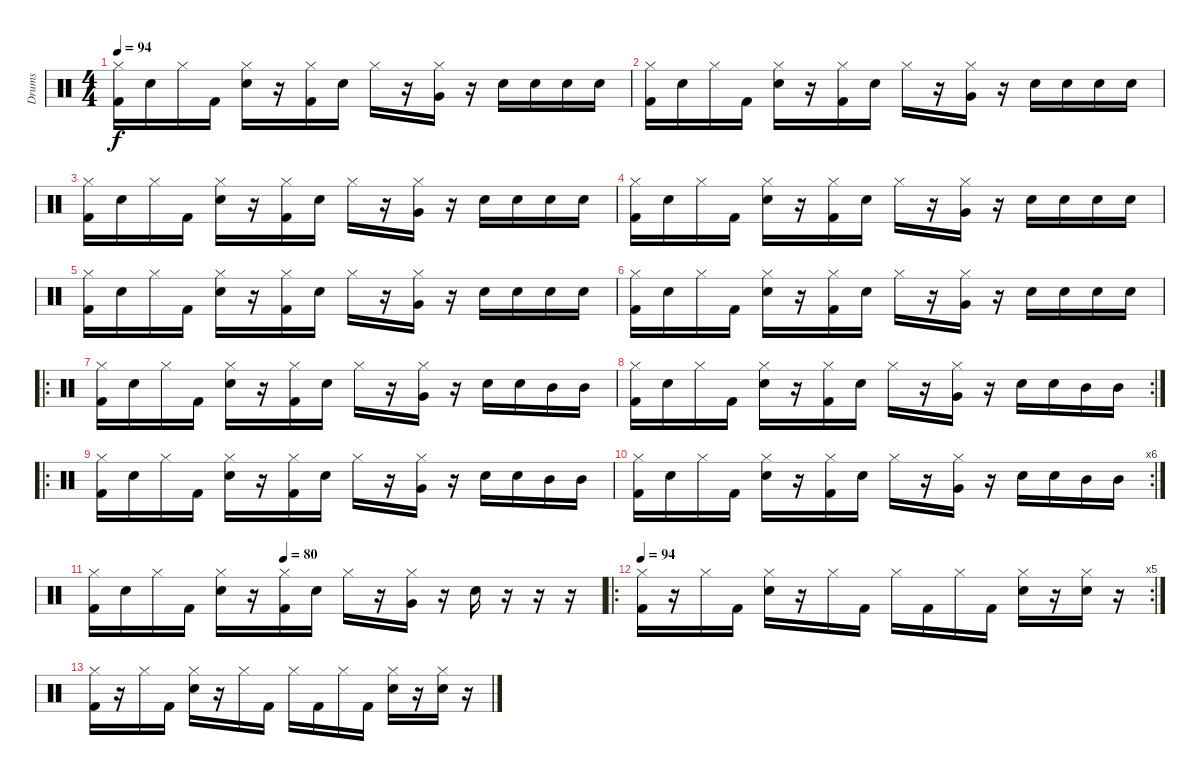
\track ("Drums" "Drums") {instrument percussion}
\staff {score}
\articulation defaults
\ts (4 4)
\tempo 94
\clef neutral
\ks c
("Hi-Hat (closed)" "Kick (hit) 2").16{dy f} "Snare (hit) 2".16 "Hi-Hat (closed)".16 "Kick (hit) 2".16 ("Hi-Hat (closed)" "Snare (hit) 2").16 r.16 ("Hi-Hat (closed)" "Kick (hit) 2").16 "Snare (hit) 2".16 "Hi-Hat (closed)".16 r.16 ("Hi-Hat (closed)" "Very Low Tom (hit)").16 r.16 "Snare (hit) 2".16 "Snare (hit) 2".16 "Snare (hit) 2".16 "Snare (hit) 2".16 |
("Hi-Hat (closed)" "Kick (hit) 2").16 "Snare (hit) 2".16 "Hi-Hat (closed)".16 "Kick (hit) 2".16 ("Hi-Hat (closed)" "Snare (hit) 2").16 r.16 ("Hi-Hat (closed)" "Kick (hit) 2").16 "Snare (hit) 2".16 "Hi-Hat (closed)".16 r.16 ("Hi-Hat (closed)" "Very Low Tom (hit)").16 r.16 "Snare (hit) 2".16 "Snare (hit) 2".16 "Snare (hit) 2".16 "Snare (hit) 2".16 |
("Hi-Hat (closed)" "Kick (hit) 2").16 "Snare (hit) 2".16 "Hi-Hat (closed)".16 "Kick (hit) 2".16 ("Hi-Hat (closed)" "Snare (hit) 2").16 r.16 ("Hi-Hat (closed)" "Kick (hit) 2").16 "Snare (hit) 2".16 "Hi-Hat (closed)".16 r.16 ("Hi-Hat (closed)" "Very Low Tom (hit)").16 r.16 "Snare (hit) 2".16 "Snare (hit) 2".16 "Snare (hit) 2".16 "Snare (hit) 2".16 |
("Hi-Hat (closed)" "Kick (hit) 2").16 "Snare (hit) 2".16 "Hi-Hat (closed)".16 "Kick (hit) 2".16 ("Hi-Hat (closed)" "Snare (hit) 2").16 r.16 ("Hi-Hat (closed)" "Kick (hit) 2").16 "Snare (hit) 2".16 "Hi-Hat (closed)".16 r.16 ("Hi-Hat (closed)" "Very Low Tom (hit)").16 r.16 "Snare (hit) 2".16 "Snare (hit) 2".16 "Snare (hit) 2".16 "Snare (hit) 2".16 |
("Hi-Hat (closed)" "Kick (hit) 2").16 "Snare (hit) 2".16 "Hi-Hat (closed)".16 "Kick (hit) 2".16 ("Hi-Hat (closed)" "Snare (hit) 2").16 r.16 ("Hi-Hat (closed)" "Kick (hit) 2").16 "Snare (hit) 2".16 "Hi-Hat (closed)".16 r.16 ("Hi-Hat (closed)" "Very Low Tom (hit)").16 r.16 "Snare (hit) 2".16 "Snare (hit) 2".16 "Snare (hit) 2".16 "Snare (hit) 2".16 |
("Hi-Hat (closed)" "Kick (hit) 2").16 "Snare (hit) 2".16 "Hi-Hat (closed)".16 "Kick (hit) 2".16 ("Hi-Hat (closed)" "Snare (hit) 2").16 r.16 ("Hi-Hat (closed)" "Kick (hit) 2").16 "Snare (hit) 2".16 "Hi-Hat (closed)".16 r.16 ("Hi-Hat (closed)" "Very Low Tom (hit)").16 r.16 "Snare (hit) 2".16 "Snare (hit) 2".16 "Snare (hit) 2".16 "Snare (hit) 2".16 |
\ro
("Hi-Hat (closed)" "Kick (hit) 2").16 "Snare (hit) 2".16 "Hi-Hat (closed)".16 "Kick (hit) 2".16 ("Hi-Hat (closed)" "Snare (hit) 2").16 r.16 ("Hi-Hat (closed)" "Kick (hit) 2").16 "Snare (hit) 2".16 "Hi-Hat (closed)".16 r.16 ("Hi-Hat (closed)" "Very Low Tom (hit)").16 r.16 "Snare (hit) 2".16 "Snare (hit) 2".16 "Mid Tom (hit)".16 "Mid Tom (hit)".16 |
\rc 2
("Hi-Hat (closed)" "Kick (hit) 2").16 "Snare (hit) 2".16 "Hi-Hat (closed)".16 "Kick (hit) 2".16 ("Hi-Hat (closed)" "Snare (hit) 2").16 r.16 ("Hi-Hat (closed)" "Kick (hit) 2").16 "Snare (hit) 2".16 "Hi-Hat (closed)".16 r.16 ("Hi-Hat (closed)" "Very Low Tom (hit)").16 r.16 "Snare (hit) 2".16 "Snare (hit) 2".16 "Mid Tom (hit)".16 "Mid Tom (hit)".16 |
\ro
("Hi-Hat (closed)" "Kick (hit) 2").16 "Snare (hit) 2".16 "Hi-Hat (closed)".16 "Kick (hit) 2".16 ("Hi-Hat (closed)" "Snare (hit) 2").16 r.16 ("Hi-Hat (closed)" "Kick (hit) 2").16 "Snare (hit) 2".16 "Hi-Hat (closed)".16 r.16 ("Hi-Hat (closed)" "Very Low Tom (hit)").16 r.16 "Snare (hit) 2".16 "Snare (hit) 2".16 "Mid Tom (hit)".16 "Mid Tom (hit)".16 |
\rc 6
("Hi-Hat (closed)" "Kick (hit) 2").16 "Snare (hit) 2".16 "Hi-Hat (closed)".16 "Kick (hit) 2".16 ("Hi-Hat (closed)" "Snare (hit) 2").16 r.16 ("Hi-Hat (closed)" "Kick (hit) 2").16 "Snare (hit) 2".16 "Hi-Hat (closed)".16 r.16 ("Hi-Hat (closed)" "Very Low Tom (hit)").16 r.16 "Snare (hit) 2".16 "Snare (hit) 2".16 "Mid Tom (hit)".16 "Mid Tom (hit)".16 |
\tempo (80 0.375)
("Hi-Hat (closed)" "Kick (hit) 2").16 "Snare (hit) 2".16 "Hi-Hat (closed)".16 "Kick (hit) 2".16 ("Hi-Hat (closed)" "Snare (hit) 2").16 r.16 ("Hi-Hat (closed)" "Kick (hit) 2").16 "Snare (hit) 2".16 "Hi-Hat (closed)".16 r.16 ("Hi-Hat (closed)" "Very Low Tom (hit)").16 r.16 "Snare (hit) 2".16 r.16 r.16 r.16 |
\ro
\rc 5
\tempo 94
("Hi-Hat (closed)" "Kick (hit) 2").16 r.16 "Hi-Hat (closed)".16 "Kick (hit) 2".16 ("Hi-Hat (closed)" "Snare (hit) 2").16 r.16 "Hi-Hat (closed)".16 "Kick (hit) 2".16 "Hi-Hat (closed)".16 "Kick (hit) 2".16 "Hi-Hat (closed)".16 "Kick (hit) 2".16 ("Hi-Hat (closed)" "Snare (hit) 2").16 r.16 ("Hi-Hat (closed)" "Snare (hit) 2").16 r.16 |
("Hi-Hat (closed)" "Kick (hit) 2").16 r.16 "Hi-Hat (closed)".16 "Kick (hit) 2".16 ("Hi-Hat (closed)" "Snare (hit) 2").16 r.16 "Hi-Hat (closed)".16 "Kick (hit) 2".16 "Hi-Hat (closed)".16 "Kick (hit) 2".16 "Hi-Hat (closed)".16 "Kick (hit) 2".16 ("Hi-Hat (closed)" "Snare (hit) 2").16 r.16 ("Hi-Hat (closed)" "Snare (hit) 2").16 r.16
